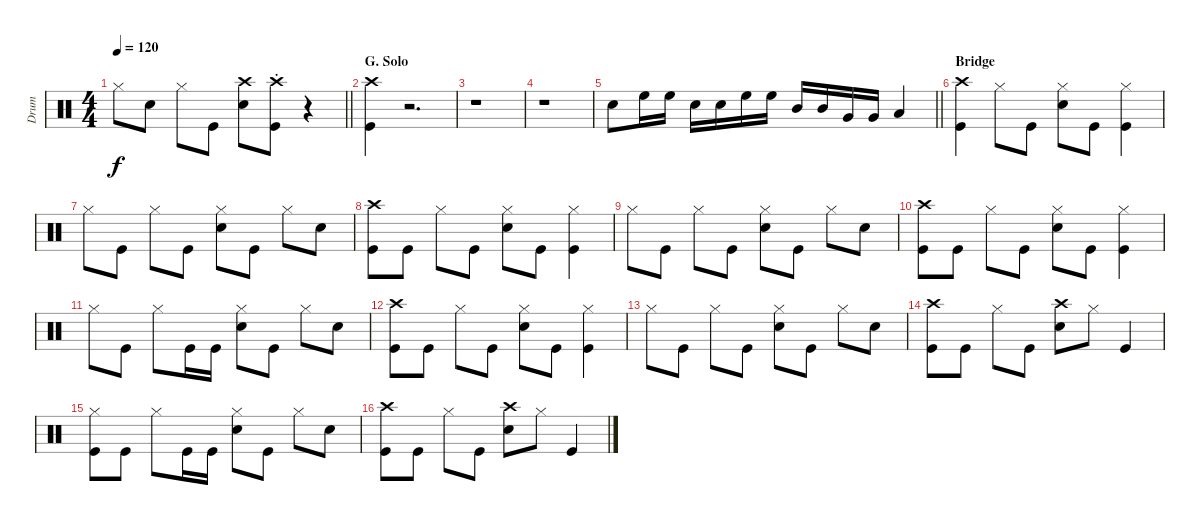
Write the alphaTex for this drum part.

\track ("Drum" "Drum") {instrument percussion}
\staff {score}
\articulation defaults
\ts (4 4)
\tempo 120
\clef neutral
\barLineRight lightlight
\ks c "Hi-Hat (closed)".8{dy f} "Snare (hit) 2".8 "Hi-Hat (closed)".8 "Kick (hit)".8
("Crash high (hit)" "Snare (hit) 2").8 ("Crash high (hit)"{st} "Kick (hit)").8 r.4 |
\section ("" "G. Solo")
("Crash high (hit)" "Kick (hit)").4 r.2{d} |
r.1 |
r.1 |
\barLineRight lightlight "Snare (hit) 2".8 "High Floor Tom (hit)".16 "High Floor Tom (hit)".16 "Snare (hit) 2".16 "Snare (hit) 2".16 "High Floor Tom (hit)".16 "High Floor Tom (hit)".16 "Mid Tom (hit)".16 "Mid Tom (hit)".16 "Very Low Tom (hit)".16 "Very Low Tom (hit)".16 "Low Floor Tom (hit)".4
|
\section ("" "Bridge")
("Crash high (hit)" "Kick (hit)").4 "Hi-Hat (closed)".8 "Kick (hit)".8 ("Hi-Hat (closed)" "Snare (hit) 2").8 "Kick (hit)".8 ("Hi-Hat (closed)" "Kick (hit)").4 |
"Hi-Hat (closed)".8 "Kick (hit)".8 "Hi-Hat (closed)".8 "Kick (hit)".8 ("Hi-Hat (closed)" "Snare (hit) 2").8 "Kick (hit)".8 "Hi-Hat (closed)".8 "Snare (hit) 2".8 |
("Crash high (hit)" "Kick (hit)").8 "Kick (hit)".8 "Hi-Hat (closed)".8 "Kick (hit)".8 ("Hi-Hat (closed)" "Snare (hit) 2").8 "Kick (hit)".8 ("Hi-Hat (closed)" "Kick (hit)").4 |
"Hi-Hat (closed)".8 "Kick (hit)".8 "Hi-Hat (closed)".8 "Kick (hit)".8 ("Hi-Hat (closed)" "Snare (hit) 2").8 "Kick (hit)".8 "Hi-Hat (closed)".8 "Snare (hit) 2".8 |
("Crash high (hit)" "Kick (hit)").8 "Kick (hit)".8 "Hi-Hat (closed)".8 "Kick (hit)".8 ("Hi-Hat (closed)" "Snare (hit) 2").8 "Kick (hit)".8 ("Hi-Hat (closed)" "Kick (hit)").4 |
"Hi-Hat (closed)".8 "Kick (hit)".8 "Hi-Hat (closed)".8 "Kick (hit)".16 "Kick (hit)".16 ("Hi-Hat (closed)" "Snare (hit) 2").8 "Kick (hit)".8 "Hi-Hat (closed)".8 "Snare (hit) 2".8 |
("Crash high (hit)" "Kick (hit)").8 "Kick (hit)".8 "Hi-Hat (closed)".8 "Kick (hit)".8 ("Hi-Hat (closed)" "Snare (hit) 2").8 "Kick (hit)".8 ("Hi-Hat (closed)" "Kick (hit)").4 |
"Hi-Hat (closed)".8 "Kick (hit)".8 "Hi-Hat (closed)".8 "Kick (hit)".8 ("Hi-Hat (closed)" "Snare (hit) 2").8 "Kick (hit)".8 "Hi-Hat (closed)".8 "Snare (hit) 2".8 |
("Crash high (hit)" "Kick (hit)").8 "Kick (hit)".8 "Hi-Hat (closed)".8 "Kick (hit)".8 ("Crash high (hit)" "Snare (hit) 2").8 "Hi-Hat (closed)".8 "Kick (hit)".4 |
("Hi-Hat (closed)" "Kick (hit)").8 "Kick (hit)".8 "Hi-Hat (closed)".8 "Kick (hit)".16 "Kick (hit)".16 ("Hi-Hat (closed)" "Snare (hit) 2").8 "Kick (hit)".8 "Hi-Hat (closed)".8 "Snare (hit) 2".8 |
("Crash high (hit)" "Kick (hit)").8 "Kick (hit)".8 "Hi-Hat (closed)".8 "Kick (hit)".8 ("Crash high (hit)" "Snare (hit) 2").8 "Hi-Hat (closed)".8 "Kick (hit)".4
